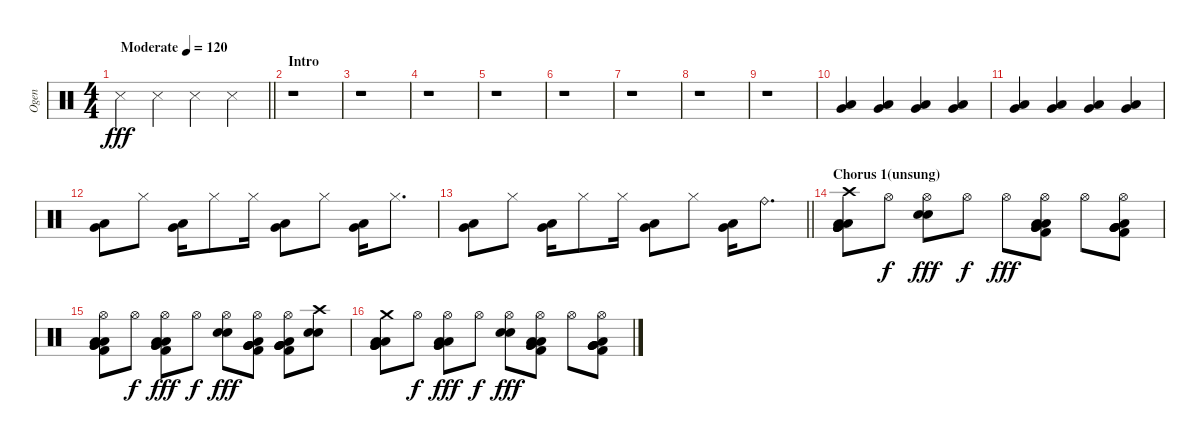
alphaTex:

\track ("Ogen" "Ogen") {instrument percussion}
\staff {score}
\articulation defaults
\ts (4 4)
\tempo (120 "Moderate")
\clef neutral
\barLineRight lightlight
\ks c "Snare (side stick) 3".4{dy fff} "Snare (side stick) 3".4 "Snare (side stick) 3".4 "Snare (side stick) 3".4
|
\section ("" "Intro")
r.1 |
r.1 |
r.1 |
r.1 |
r.1 |
r.1 |
r.1 |
r.1 |
("Very Low Tom (hit)" "Low Floor Tom (hit)").4 ("Low Floor Tom (hit)" "Very Low Tom (hit)").4 ("Very Low Tom (hit)" "Low Floor Tom (hit)").4 ("Low Floor Tom (hit)" "Very Low Tom (hit)").4 |
("Very Low Tom (hit)" "Low Floor Tom (hit)").4 ("Low Floor Tom (hit)" "Very Low Tom (hit)").4 ("Low Floor Tom (hit)" "Very Low Tom (hit)").4 ("Very Low Tom (hit)" "Low Floor Tom (hit)").4 |
("Very Low Tom (hit)" "Low Floor Tom (hit)").8 "Hi-Hat (closed)".8 ("Low Floor Tom (hit)" "Very Low Tom (hit)").16 "Hi-Hat (closed)".8 "Hi-Hat (closed)".16 ("Very Low Tom (hit)" "Low Floor Tom (hit)").8 "Hi-Hat (closed)".8 ("Low Floor Tom (hit)" "Very Low Tom (hit)").16 "Hi-Hat (closed)".8{d} |
\barLineRight lightlight
("Very Low Tom (hit)" "Low Floor Tom (hit)").8 "Hi-Hat (closed)".8 ("Low Floor Tom (hit)" "Very Low Tom (hit)").16 "Hi-Hat (closed)".8 "Hi-Hat (closed)".16 ("Very Low Tom (hit)" "Low Floor Tom (hit)").8 "Hi-Hat (closed)".8 ("Low Floor Tom (hit)" "Very Low Tom (hit)").16 "Ride (bell)".8{d} |
\section ("" "Chorus 1(unsung)")
("Crash high (hit)" "Very Low Tom (hit)" "Low Floor Tom (hit)" "Very Low Tom (hit)" "Low Floor Tom (hit)" "Very Low Tom (hit)").8 "Hi-Hat (open)".8{dy f} ("Hi-Hat (open)" "Electric Snare (hit)" "Snare (hit) 2").8{dy fff} "Hi-Hat (open)".8{dy f} "Hi-Hat (open)".8{dy fff} ("Hi-Hat (open)" "Very Low Tom (hit)" "Kick (hit) 2" "Low Floor Tom (hit)" "Very Low Tom (hit)" "Low Floor Tom (hit)").8 "Hi-Hat (open)".8 ("Hi-Hat (open)" "Very Low Tom (hit)" "Kick (hit) 2" "Very Low Tom (hit)" "Low Floor Tom (hit)" "Very Low Tom (hit)").8 |
("Hi-Hat (open)" "Kick (hit) 2" "Very Low Tom (hit)" "Low Floor Tom (hit)" "Very Low Tom (hit)" "Low Floor Tom (hit)").8 "Hi-Hat (open)".8{dy f} ("Hi-Hat (open)" "Kick (hit) 2" "Very Low Tom (hit)" "Low Floor Tom (hit)" "Very Low Tom (hit)" "Low Floor Tom (hit)").8{dy fff} "Hi-Hat (open)".8{dy f} ("Hi-Hat (open)" "Snare (hit) 2" "Electric Snare (hit)").8{dy fff} ("Hi-Hat (open)" "Kick (hit) 2" "Very Low Tom (hit)" "Very Low Tom (hit)" "Low Floor Tom (hit)" "Very Low Tom (hit)").8 ("Hi-Hat (open)" "Very Low Tom (hit)" "Kick (hit) 2" "Very Low Tom (hit)" "Low Floor Tom (hit)" "Very Low Tom (hit)").8 ("Crash high (hit)" "Snare (hit) 2" "Electric Snare (hit)").8 |
("Crash medium (hit)" "Very Low Tom (hit)" "Low Floor Tom (hit)" "Very Low Tom (hit)" "Low Floor Tom (hit)" "Very Low Tom (hit)").8 "Hi-Hat (open)".8{dy f} ("Hi-Hat (open)" "Very Low Tom (hit)" "Low Floor Tom (hit)" "Very Low Tom (hit)" "Low Floor Tom (hit)").8{dy fff} "Hi-Hat (open)".8{dy f} ("Hi-Hat (open)" "Snare (hit) 2" "Electric Snare (hit)").8{dy fff} ("Hi-Hat (open)" "Very Low Tom (hit)" "Kick (hit) 2" "Low Floor Tom (hit)" "Very Low Tom (hit)" "Low Floor Tom (hit)").8 "Hi-Hat (open)".8 ("Hi-Hat (open)" "Very Low Tom (hit)" "Kick (hit) 2" "Very Low Tom (hit)" "Low Floor Tom (hit)" "Very Low Tom (hit)").8
